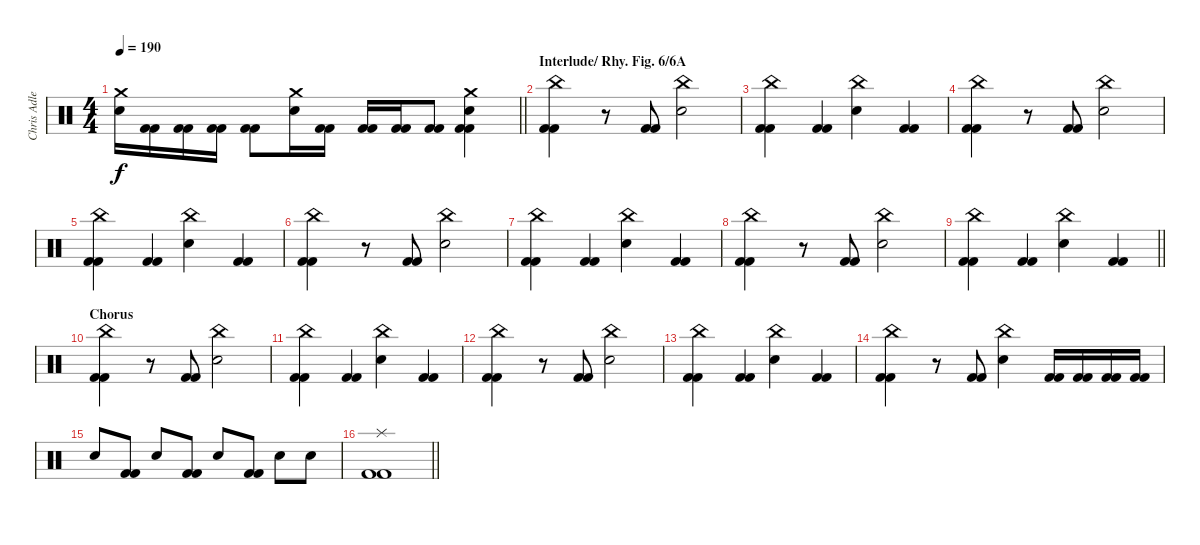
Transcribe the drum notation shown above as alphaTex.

\track ("Chris Adler" "Chris Adle") {instrument percussion}
\staff {score}
\articulation defaults
\ts (4 4)
\tempo 190
\clef neutral
\barLineRight lightlight
\ks c
("Crash medium (hit)" "Electric Snare (hit)").16{dy f} ("Kick (hit) 2" "Kick (hit) 2").16 ("Kick (hit) 2" "Kick (hit) 2").16 ("Kick (hit) 2" "Kick (hit) 2").16 ("Kick (hit) 2" "Kick (hit) 2").8 ("Crash medium (hit)" "Electric Snare (hit)").16 ("Kick (hit) 2" "Kick (hit) 2").16 ("Kick (hit) 2" "Kick (hit) 2").16 ("Kick (hit) 2" "Kick (hit) 2").16 ("Kick (hit) 2" "Kick (hit) 2").8 ("Crash medium (hit)" "Electric Snare (hit)" "Kick (hit) 2" "Kick (hit) 2").4 |
\section ("" "Interlude/ Rhy. Fig. 6/6A")
("China (hit)" "Kick (hit) 2" "Kick (hit) 2").4 r.8 ("Kick (hit) 2" "Kick (hit) 2").8 ("China (hit)" "Electric Snare (hit)").2 |
("China (hit)" "Kick (hit) 2" "Kick (hit) 2").4 ("Kick (hit) 2" "Kick (hit) 2").4 ("China (hit)" "Electric Snare (hit)").4 ("Kick (hit) 2" "Kick (hit) 2").4 |
("China (hit)" "Kick (hit) 2" "Kick (hit) 2").4 r.8 ("Kick (hit) 2" "Kick (hit) 2").8 ("China (hit)" "Electric Snare (hit)").2 |
("China (hit)" "Kick (hit) 2" "Kick (hit) 2").4 ("Kick (hit) 2" "Kick (hit) 2").4 ("China (hit)" "Electric Snare (hit)").4 ("Kick (hit) 2" "Kick (hit) 2").4 |
("China (hit)" "Kick (hit) 2" "Kick (hit) 2").4 r.8 ("Kick (hit) 2" "Kick (hit) 2").8 ("China (hit)" "Electric Snare (hit)").2 |
("China (hit)" "Kick (hit) 2" "Kick (hit) 2").4 ("Kick (hit) 2" "Kick (hit) 2").4 ("China (hit)" "Electric Snare (hit)").4 ("Kick (hit) 2" "Kick (hit) 2").4 |
("China (hit)" "Kick (hit) 2" "Kick (hit) 2").4 r.8 ("Kick (hit) 2" "Kick (hit) 2").8 ("China (hit)" "Electric Snare (hit)").2 |
\barLineRight lightlight
("China (hit)" "Kick (hit) 2" "Kick (hit) 2").4 ("Kick (hit) 2" "Kick (hit) 2").4 ("China (hit)" "Electric Snare (hit)").4 ("Kick (hit) 2" "Kick (hit) 2").4 |
\section ("" "Chorus")
("China (hit)" "Kick (hit) 2" "Kick (hit) 2").4 r.8 ("Kick (hit) 2" "Kick (hit) 2").8 ("China (hit)" "Electric Snare (hit)").2 |
("China (hit)" "Kick (hit) 2" "Kick (hit) 2").4 ("Kick (hit) 2" "Kick (hit) 2").4 ("China (hit)" "Electric Snare (hit)").4 ("Kick (hit) 2" "Kick (hit) 2").4 |
("China (hit)" "Kick (hit) 2" "Kick (hit) 2").4 r.8 ("Kick (hit) 2" "Kick (hit) 2").8 ("China (hit)" "Electric Snare (hit)").2 |
("China (hit)" "Kick (hit) 2" "Kick (hit) 2").4 ("Kick (hit) 2" "Kick (hit) 2").4 ("China (hit)" "Electric Snare (hit)").4 ("Kick (hit) 2" "Kick (hit) 2").4 |
("China (hit)" "Kick (hit) 2" "Kick (hit) 2").4 r.8 ("Kick (hit) 2" "Kick (hit) 2").8 ("China (hit)" "Electric Snare (hit)").4 ("Kick (hit) 2" "Kick (hit) 2").16 ("Kick (hit) 2" "Kick (hit) 2").16 ("Kick (hit) 2" "Kick (hit) 2").16 ("Kick (hit) 2" "Kick (hit) 2").16 |
"Electric Snare (hit)".8 ("Kick (hit) 2" "Kick (hit) 2").8 "Electric Snare (hit)".8 ("Kick (hit) 2" "Kick (hit) 2").8 "Electric Snare (hit)".8 ("Kick (hit) 2" "Kick (hit) 2").8 "Electric Snare (hit)".8 "Electric Snare (hit)".8 |
\barLineRight lightlight
("Splash (hit)" "Kick (hit) 2" "Kick (hit) 2").1
